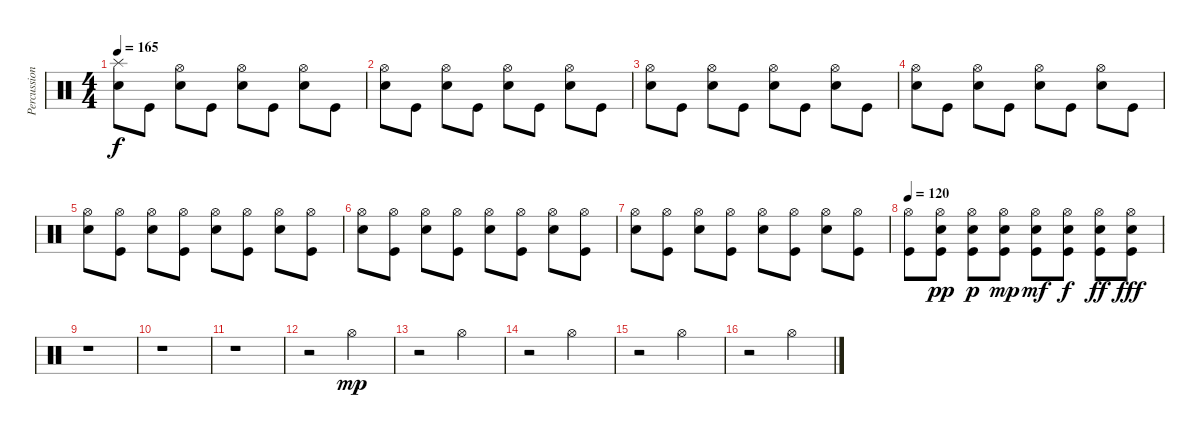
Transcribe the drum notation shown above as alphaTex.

\track ("Percussion" "Percussion") {instrument percussion}
\staff {score}
\articulation defaults
\ts (4 4)
\tempo 165
\clef neutral
\ks c
("Splash (hit)" "Snare (hit) 2").8{dy f} "Kick (hit)".8 ("Hi-Hat (open)" "Snare (hit) 2").8 "Kick (hit)".8 ("Hi-Hat (open)" "Snare (hit) 2").8 "Kick (hit)".8 ("Hi-Hat (open)" "Snare (hit) 2").8 "Kick (hit)".8 |
("Hi-Hat (open)" "Snare (hit) 2").8 "Kick (hit)".8 ("Hi-Hat (open)" "Snare (hit) 2").8 "Kick (hit)".8 ("Hi-Hat (open)" "Snare (hit) 2").8 "Kick (hit)".8 ("Hi-Hat (open)" "Snare (hit) 2").8 "Kick (hit)".8 |
("Hi-Hat (open)" "Snare (hit) 2").8 "Kick (hit)".8 ("Hi-Hat (open)" "Snare (hit) 2").8 "Kick (hit)".8 ("Hi-Hat (open)" "Snare (hit) 2").8 "Kick (hit)".8 ("Hi-Hat (open)" "Snare (hit) 2").8 "Kick (hit)".8 |
("Hi-Hat (open)" "Snare (hit) 2").8 "Kick (hit)".8 ("Hi-Hat (open)" "Snare (hit) 2").8 "Kick (hit)".8 ("Hi-Hat (open)" "Snare (hit) 2").8 "Kick (hit)".8 ("Hi-Hat (open)" "Snare (hit) 2").8 "Kick (hit)".8 |
("Hi-Hat (open)" "Snare (hit) 2").8 ("Hi-Hat (open)" "Kick (hit)").8 ("Hi-Hat (open)" "Snare (hit) 2").8 ("Hi-Hat (open)" "Kick (hit)").8 ("Hi-Hat (open)" "Snare (hit) 2").8 ("Hi-Hat (open)" "Kick (hit)").8 ("Hi-Hat (open)" "Snare (hit) 2").8 ("Hi-Hat (open)" "Kick (hit)").8 |
("Hi-Hat (open)" "Snare (hit) 2").8 ("Hi-Hat (open)" "Kick (hit)").8 ("Hi-Hat (open)" "Snare (hit) 2").8 ("Hi-Hat (open)" "Kick (hit)").8 ("Hi-Hat (open)" "Snare (hit) 2").8 ("Hi-Hat (open)" "Kick (hit)").8 ("Hi-Hat (open)" "Snare (hit) 2").8 ("Hi-Hat (open)" "Kick (hit)").8 |
("Hi-Hat (open)" "Snare (hit) 2").8 ("Hi-Hat (open)" "Kick (hit)").8 ("Hi-Hat (open)" "Snare (hit) 2").8 ("Hi-Hat (open)" "Kick (hit)").8 ("Hi-Hat (open)" "Snare (hit) 2").8 ("Hi-Hat (open)" "Kick (hit)").8 ("Hi-Hat (open)" "Snare (hit) 2").8 ("Hi-Hat (open)" "Kick (hit)").8 |
\tempo 120
("Hi-Hat (open)" "Kick (hit)").8 ("Hi-Hat (open)" "Snare (hit) 2" "Kick (hit)").8{dy pp} ("Hi-Hat (open)" "Snare (hit) 2" "Kick (hit)").8{dy p} ("Hi-Hat (open)" "Snare (hit) 2" "Kick (hit)").8{dy mp} ("Hi-Hat (open)" "Snare (hit) 2" "Kick (hit)").8{dy mf} ("Hi-Hat (open)" "Snare (hit) 2" "Kick (hit)").8{dy f} ("Hi-Hat (open)" "Snare (hit) 2" "Kick (hit)").8{dy ff} ("Hi-Hat (open)" "Snare (hit) 2" "Kick (hit)").8{dy fff} |
r.1 |
r.1 |
r.1 |
r.2 "Hi-Hat (open)".2{dy mp} |
r.2 "Hi-Hat (open)".2 |
r.2 "Hi-Hat (open)".2 |
r.2 "Hi-Hat (open)".2 |
r.2 "Hi-Hat (open)".2
